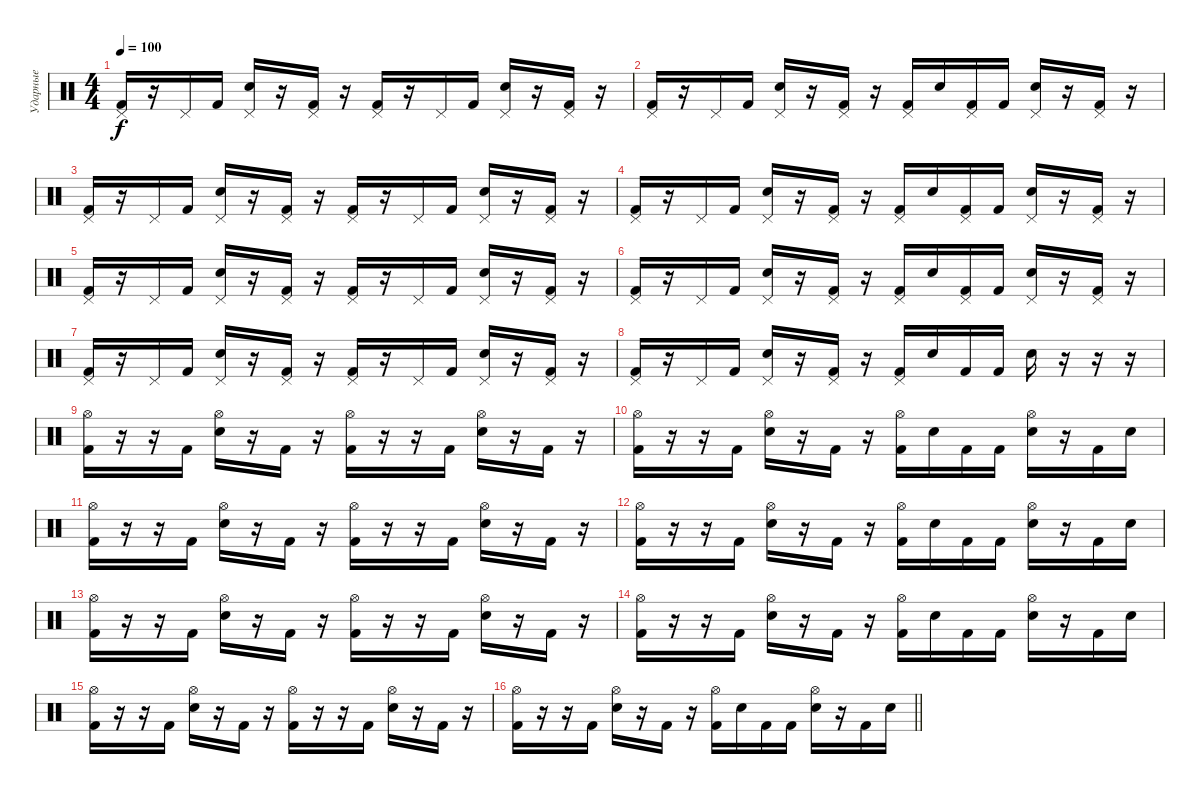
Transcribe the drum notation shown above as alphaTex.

\track ("Ударные" "Ударные") {instrument percussion}
\staff {score}
\articulation defaults
\ts (4 4)
\tempo 100
\clef neutral
\ks c
("Kick (hit) 2" "Pedal Hi-Hat (hit)").16{dy f} r.16 "Pedal Hi-Hat (hit)".16 "Kick (hit) 2".16 ("Electric Snare (hit)" "Pedal Hi-Hat (hit)").16 r.16 ("Kick (hit) 2" "Pedal Hi-Hat (hit)").16 r.16 ("Kick (hit) 2" "Pedal Hi-Hat (hit)").16 r.16 "Pedal Hi-Hat (hit)".16 "Kick (hit) 2".16 ("Electric Snare (hit)" "Pedal Hi-Hat (hit)").16 r.16 ("Kick (hit) 2" "Pedal Hi-Hat (hit)").16 r.16 |
("Kick (hit) 2" "Pedal Hi-Hat (hit)").16 r.16 "Pedal Hi-Hat (hit)".16 "Kick (hit) 2".16 ("Electric Snare (hit)" "Pedal Hi-Hat (hit)").16 r.16 ("Kick (hit) 2" "Pedal Hi-Hat (hit)").16 r.16 ("Kick (hit) 2" "Pedal Hi-Hat (hit)").16 "Electric Snare (hit)".16 ("Kick (hit) 2" "Pedal Hi-Hat (hit)").16 "Kick (hit) 2".16 ("Electric Snare (hit)" "Pedal Hi-Hat (hit)").16 r.16 ("Kick (hit) 2" "Pedal Hi-Hat (hit)").16 r.16 |
("Kick (hit) 2" "Pedal Hi-Hat (hit)").16 r.16 "Pedal Hi-Hat (hit)".16 "Kick (hit) 2".16 ("Electric Snare (hit)" "Pedal Hi-Hat (hit)").16 r.16 ("Kick (hit) 2" "Pedal Hi-Hat (hit)").16 r.16 ("Kick (hit) 2" "Pedal Hi-Hat (hit)").16 r.16 "Pedal Hi-Hat (hit)".16 "Kick (hit) 2".16 ("Electric Snare (hit)" "Pedal Hi-Hat (hit)").16 r.16 ("Kick (hit) 2" "Pedal Hi-Hat (hit)").16 r.16 |
("Kick (hit) 2" "Pedal Hi-Hat (hit)").16 r.16 "Pedal Hi-Hat (hit)".16 "Kick (hit) 2".16 ("Electric Snare (hit)" "Pedal Hi-Hat (hit)").16 r.16 ("Kick (hit) 2" "Pedal Hi-Hat (hit)").16 r.16 ("Kick (hit) 2" "Pedal Hi-Hat (hit)").16 "Electric Snare (hit)".16 ("Kick (hit) 2" "Pedal Hi-Hat (hit)").16 "Kick (hit) 2".16 ("Electric Snare (hit)" "Pedal Hi-Hat (hit)").16 r.16 ("Kick (hit) 2" "Pedal Hi-Hat (hit)").16 r.16 |
("Kick (hit) 2" "Pedal Hi-Hat (hit)").16 r.16 "Pedal Hi-Hat (hit)".16 "Kick (hit) 2".16 ("Electric Snare (hit)" "Pedal Hi-Hat (hit)").16 r.16 ("Kick (hit) 2" "Pedal Hi-Hat (hit)").16 r.16 ("Kick (hit) 2" "Pedal Hi-Hat (hit)").16 r.16 "Pedal Hi-Hat (hit)".16 "Kick (hit) 2".16 ("Electric Snare (hit)" "Pedal Hi-Hat (hit)").16 r.16 ("Kick (hit) 2" "Pedal Hi-Hat (hit)").16 r.16 |
("Kick (hit) 2" "Pedal Hi-Hat (hit)").16 r.16 "Pedal Hi-Hat (hit)".16 "Kick (hit) 2".16 ("Electric Snare (hit)" "Pedal Hi-Hat (hit)").16 r.16 ("Kick (hit) 2" "Pedal Hi-Hat (hit)").16 r.16 ("Kick (hit) 2" "Pedal Hi-Hat (hit)").16 "Electric Snare (hit)".16 ("Kick (hit) 2" "Pedal Hi-Hat (hit)").16 "Kick (hit) 2".16 ("Electric Snare (hit)" "Pedal Hi-Hat (hit)").16 r.16 ("Kick (hit) 2" "Pedal Hi-Hat (hit)").16 r.16 |
("Kick (hit) 2" "Pedal Hi-Hat (hit)").16 r.16 "Pedal Hi-Hat (hit)".16 "Kick (hit) 2".16 ("Electric Snare (hit)" "Pedal Hi-Hat (hit)").16 r.16 ("Kick (hit) 2" "Pedal Hi-Hat (hit)").16 r.16 ("Kick (hit) 2" "Pedal Hi-Hat (hit)").16 r.16 "Pedal Hi-Hat (hit)".16 "Kick (hit) 2".16 ("Electric Snare (hit)" "Pedal Hi-Hat (hit)").16 r.16 ("Kick (hit) 2" "Pedal Hi-Hat (hit)").16 r.16 |
("Kick (hit) 2" "Pedal Hi-Hat (hit)").16 r.16 "Pedal Hi-Hat (hit)".16 "Kick (hit) 2".16 ("Electric Snare (hit)" "Pedal Hi-Hat (hit)").16 r.16 ("Kick (hit) 2" "Pedal Hi-Hat (hit)").16 r.16 ("Kick (hit) 2" "Pedal Hi-Hat (hit)").16 "Electric Snare (hit)".16 "Kick (hit) 2".16 "Kick (hit) 2".16 "Electric Snare (hit)".16 r.16 r.16 r.16 |
("Kick (hit) 2" "Hi-Hat (open)").16 r.16 r.16 "Kick (hit) 2".16 ("Electric Snare (hit)" "Hi-Hat (open)").16 r.16 "Kick (hit) 2".16 r.16 ("Kick (hit) 2" "Hi-Hat (open)").16 r.16 r.16 "Kick (hit) 2".16 ("Electric Snare (hit)" "Hi-Hat (open)").16 r.16 "Kick (hit) 2".16 r.16 |
("Kick (hit) 2" "Hi-Hat (open)").16 r.16 r.16 "Kick (hit) 2".16 ("Electric Snare (hit)" "Hi-Hat (open)").16 r.16 "Kick (hit) 2".16 r.16 ("Kick (hit) 2" "Hi-Hat (open)").16 "Electric Snare (hit)".16 "Kick (hit) 2".16 "Kick (hit) 2".16 ("Electric Snare (hit)" "Hi-Hat (open)").16 r.16 "Kick (hit) 2".16 "Electric Snare (hit)".16 |
("Kick (hit) 2" "Hi-Hat (open)").16 r.16 r.16 "Kick (hit) 2".16 ("Electric Snare (hit)" "Hi-Hat (open)").16 r.16 "Kick (hit) 2".16 r.16 ("Kick (hit) 2" "Hi-Hat (open)").16 r.16 r.16 "Kick (hit) 2".16 ("Electric Snare (hit)" "Hi-Hat (open)").16 r.16 "Kick (hit) 2".16 r.16 |
("Kick (hit) 2" "Hi-Hat (open)").16 r.16 r.16 "Kick (hit) 2".16 ("Electric Snare (hit)" "Hi-Hat (open)").16 r.16 "Kick (hit) 2".16 r.16 ("Kick (hit) 2" "Hi-Hat (open)").16 "Electric Snare (hit)".16 "Kick (hit) 2".16 "Kick (hit) 2".16 ("Electric Snare (hit)" "Hi-Hat (open)").16 r.16 "Kick (hit) 2".16 "Electric Snare (hit)".16 |
("Kick (hit) 2" "Hi-Hat (open)").16 r.16 r.16 "Kick (hit) 2".16 ("Electric Snare (hit)" "Hi-Hat (open)").16 r.16 "Kick (hit) 2".16 r.16 ("Kick (hit) 2" "Hi-Hat (open)").16 r.16 r.16 "Kick (hit) 2".16 ("Electric Snare (hit)" "Hi-Hat (open)").16 r.16 "Kick (hit) 2".16 r.16 |
("Kick (hit) 2" "Hi-Hat (open)").16 r.16 r.16 "Kick (hit) 2".16 ("Electric Snare (hit)" "Hi-Hat (open)").16 r.16 "Kick (hit) 2".16 r.16 ("Kick (hit) 2" "Hi-Hat (open)").16 "Electric Snare (hit)".16 "Kick (hit) 2".16 "Kick (hit) 2".16 ("Electric Snare (hit)" "Hi-Hat (open)").16 r.16 "Kick (hit) 2".16 "Electric Snare (hit)".16 |
("Kick (hit) 2" "Hi-Hat (open)").16 r.16 r.16 "Kick (hit) 2".16 ("Electric Snare (hit)" "Hi-Hat (open)").16 r.16 "Kick (hit) 2".16 r.16 ("Kick (hit) 2" "Hi-Hat (open)").16 r.16 r.16 "Kick (hit) 2".16 ("Electric Snare (hit)" "Hi-Hat (open)").16 r.16 "Kick (hit) 2".16 r.16 |
\barLineRight lightlight
("Kick (hit) 2" "Hi-Hat (open)").16 r.16 r.16 "Kick (hit) 2".16 ("Electric Snare (hit)" "Hi-Hat (open)").16 r.16 "Kick (hit) 2".16 r.16 ("Kick (hit) 2" "Hi-Hat (open)").16 "Electric Snare (hit)".16 "Kick (hit) 2".16 "Kick (hit) 2".16 ("Electric Snare (hit)" "Hi-Hat (open)").16 r.16 "Kick (hit) 2".16 "Electric Snare (hit)".16
